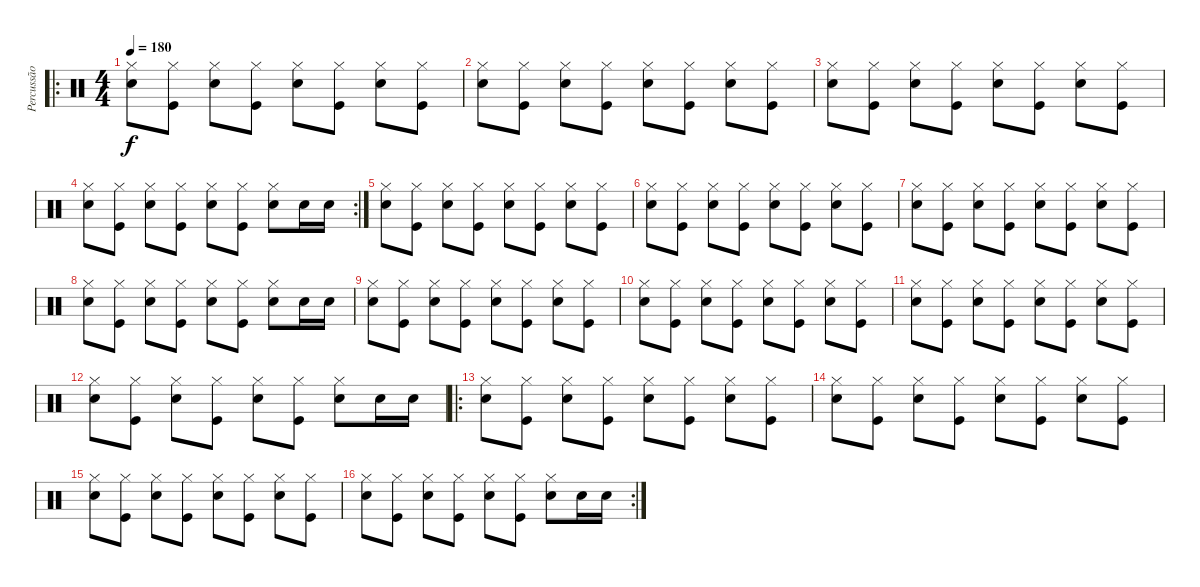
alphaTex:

\track ("Percussão" "Percussão") {instrument percussion}
\staff {score}
\articulation defaults
\ro
\ts (4 4)
\tempo 180
\clef neutral
\ks c
("Hi-Hat (closed)" "Snare (hit) 2").8{dy f} ("Hi-Hat (closed)" "Kick (hit)").8 ("Hi-Hat (closed)" "Snare (hit) 2").8 ("Hi-Hat (closed)" "Kick (hit)").8 ("Hi-Hat (closed)" "Snare (hit) 2").8 ("Hi-Hat (closed)" "Kick (hit)").8 ("Hi-Hat (closed)" "Snare (hit) 2").8 ("Hi-Hat (closed)" "Kick (hit)").8 |
("Hi-Hat (closed)" "Snare (hit) 2").8 ("Hi-Hat (closed)" "Kick (hit)").8 ("Hi-Hat (closed)" "Snare (hit) 2").8 ("Hi-Hat (closed)" "Kick (hit)").8 ("Hi-Hat (closed)" "Snare (hit) 2").8 ("Hi-Hat (closed)" "Kick (hit)").8 ("Hi-Hat (closed)" "Snare (hit) 2").8 ("Hi-Hat (closed)" "Kick (hit)").8 |
("Hi-Hat (closed)" "Snare (hit) 2").8 ("Hi-Hat (closed)" "Kick (hit)").8 ("Hi-Hat (closed)" "Snare (hit) 2").8 ("Hi-Hat (closed)" "Kick (hit)").8 ("Hi-Hat (closed)" "Snare (hit) 2").8 ("Hi-Hat (closed)" "Kick (hit)").8 ("Hi-Hat (closed)" "Snare (hit) 2").8 ("Hi-Hat (closed)" "Kick (hit)").8 |
\rc 2
("Hi-Hat (closed)" "Snare (hit) 2").8 ("Hi-Hat (closed)" "Kick (hit)").8 ("Hi-Hat (closed)" "Snare (hit) 2").8 ("Hi-Hat (closed)" "Kick (hit)").8 ("Hi-Hat (closed)" "Snare (hit) 2").8 ("Hi-Hat (closed)" "Kick (hit)").8 ("Hi-Hat (closed)" "Snare (hit) 2").8 "Snare (hit) 2".16 "Snare (hit) 2".16 |
("Hi-Hat (closed)" "Snare (hit) 2").8 ("Hi-Hat (closed)" "Kick (hit)").8 ("Hi-Hat (closed)" "Snare (hit) 2").8 ("Hi-Hat (closed)" "Kick (hit)").8 ("Hi-Hat (closed)" "Snare (hit) 2").8 ("Hi-Hat (closed)" "Kick (hit)").8 ("Hi-Hat (closed)" "Snare (hit) 2").8 ("Hi-Hat (closed)" "Kick (hit)").8 |
("Hi-Hat (closed)" "Snare (hit) 2").8 ("Hi-Hat (closed)" "Kick (hit)").8 ("Hi-Hat (closed)" "Snare (hit) 2").8 ("Hi-Hat (closed)" "Kick (hit)").8 ("Hi-Hat (closed)" "Snare (hit) 2").8 ("Hi-Hat (closed)" "Kick (hit)").8 ("Hi-Hat (closed)" "Snare (hit) 2").8 ("Hi-Hat (closed)" "Kick (hit)").8 |
("Hi-Hat (closed)" "Snare (hit) 2").8 ("Hi-Hat (closed)" "Kick (hit)").8 ("Hi-Hat (closed)" "Snare (hit) 2").8 ("Hi-Hat (closed)" "Kick (hit)").8 ("Hi-Hat (closed)" "Snare (hit) 2").8 ("Hi-Hat (closed)" "Kick (hit)").8 ("Hi-Hat (closed)" "Snare (hit) 2").8 ("Hi-Hat (closed)" "Kick (hit)").8 |
("Hi-Hat (closed)" "Snare (hit) 2").8 ("Hi-Hat (closed)" "Kick (hit)").8 ("Hi-Hat (closed)" "Snare (hit) 2").8 ("Hi-Hat (closed)" "Kick (hit)").8 ("Hi-Hat (closed)" "Snare (hit) 2").8 ("Hi-Hat (closed)" "Kick (hit)").8 ("Hi-Hat (closed)" "Snare (hit) 2").8 "Snare (hit) 2".16 "Snare (hit) 2".16 |
("Hi-Hat (closed)" "Snare (hit) 2").8 ("Hi-Hat (closed)" "Kick (hit)").8 ("Hi-Hat (closed)" "Snare (hit) 2").8 ("Hi-Hat (closed)" "Kick (hit)").8 ("Hi-Hat (closed)" "Snare (hit) 2").8 ("Hi-Hat (closed)" "Kick (hit)").8 ("Hi-Hat (closed)" "Snare (hit) 2").8 ("Hi-Hat (closed)" "Kick (hit)").8 |
("Hi-Hat (closed)" "Snare (hit) 2").8 ("Hi-Hat (closed)" "Kick (hit)").8 ("Hi-Hat (closed)" "Snare (hit) 2").8 ("Hi-Hat (closed)" "Kick (hit)").8 ("Hi-Hat (closed)" "Snare (hit) 2").8 ("Hi-Hat (closed)" "Kick (hit)").8 ("Hi-Hat (closed)" "Snare (hit) 2").8 ("Hi-Hat (closed)" "Kick (hit)").8 |
("Hi-Hat (closed)" "Snare (hit) 2").8 ("Hi-Hat (closed)" "Kick (hit)").8 ("Hi-Hat (closed)" "Snare (hit) 2").8 ("Hi-Hat (closed)" "Kick (hit)").8 ("Hi-Hat (closed)" "Snare (hit) 2").8 ("Hi-Hat (closed)" "Kick (hit)").8 ("Hi-Hat (closed)" "Snare (hit) 2").8 ("Hi-Hat (closed)" "Kick (hit)").8 |
("Hi-Hat (closed)" "Snare (hit) 2").8 ("Hi-Hat (closed)" "Kick (hit)").8 ("Hi-Hat (closed)" "Snare (hit) 2").8 ("Hi-Hat (closed)" "Kick (hit)").8 ("Hi-Hat (closed)" "Snare (hit) 2").8 ("Hi-Hat (closed)" "Kick (hit)").8 ("Hi-Hat (closed)" "Snare (hit) 2").8 "Snare (hit) 2".16 "Snare (hit) 2".16 |
\ro
("Hi-Hat (closed)" "Snare (hit) 2").8 ("Hi-Hat (closed)" "Kick (hit)").8 ("Hi-Hat (closed)" "Snare (hit) 2").8 ("Hi-Hat (closed)" "Kick (hit)").8 ("Hi-Hat (closed)" "Snare (hit) 2").8 ("Hi-Hat (closed)" "Kick (hit)").8 ("Hi-Hat (closed)" "Snare (hit) 2").8 ("Hi-Hat (closed)" "Kick (hit)").8 |
("Hi-Hat (closed)" "Snare (hit) 2").8 ("Hi-Hat (closed)" "Kick (hit)").8 ("Hi-Hat (closed)" "Snare (hit) 2").8 ("Hi-Hat (closed)" "Kick (hit)").8 ("Hi-Hat (closed)" "Snare (hit) 2").8 ("Hi-Hat (closed)" "Kick (hit)").8 ("Hi-Hat (closed)" "Snare (hit) 2").8 ("Hi-Hat (closed)" "Kick (hit)").8 |
("Hi-Hat (closed)" "Snare (hit) 2").8 ("Hi-Hat (closed)" "Kick (hit)").8 ("Hi-Hat (closed)" "Snare (hit) 2").8 ("Hi-Hat (closed)" "Kick (hit)").8 ("Hi-Hat (closed)" "Snare (hit) 2").8 ("Hi-Hat (closed)" "Kick (hit)").8 ("Hi-Hat (closed)" "Snare (hit) 2").8 ("Hi-Hat (closed)" "Kick (hit)").8 |
\rc 2
("Hi-Hat (closed)" "Snare (hit) 2").8 ("Hi-Hat (closed)" "Kick (hit)").8 ("Hi-Hat (closed)" "Snare (hit) 2").8 ("Hi-Hat (closed)" "Kick (hit)").8 ("Hi-Hat (closed)" "Snare (hit) 2").8 ("Hi-Hat (closed)" "Kick (hit)").8 ("Hi-Hat (closed)" "Snare (hit) 2").8 "Snare (hit) 2".16 "Snare (hit) 2".16
